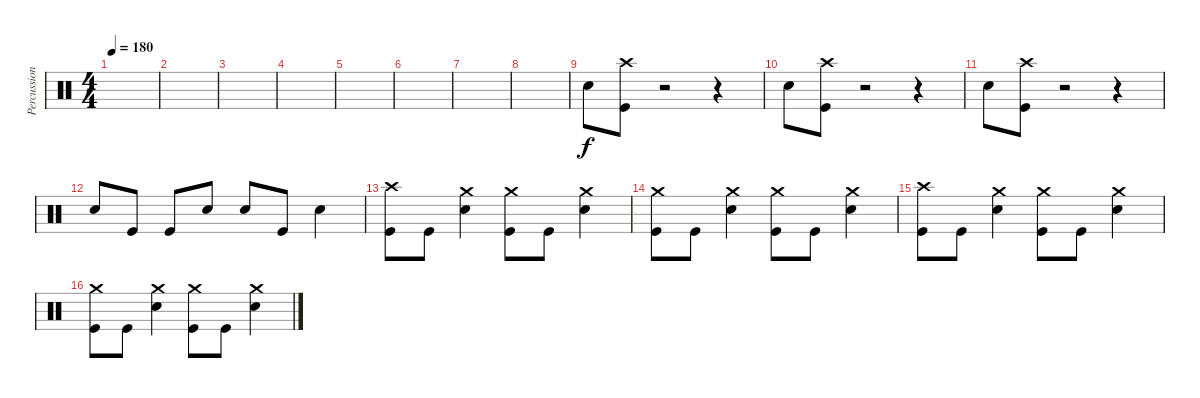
\track ("Percussion" "Percussion") {instrument percussion}
\staff {score}
\articulation defaults
\ts (4 4)
\tempo 180
\clef neutral
\ks c
|
|
|
|
|
|
|
|
"Snare (hit) 2".8 ("Crash high (hit)" "Kick (hit)").8 r.2 r.4 |
"Snare (hit) 2".8 ("Crash high (hit)" "Kick (hit)").8 r.2 r.4 |
"Snare (hit) 2".8 ("Crash high (hit)" "Kick (hit)").8 r.2 r.4 |
"Snare (hit) 2".8 "Kick (hit)".8 "Kick (hit)".8 "Snare (hit) 2".8 "Snare (hit) 2".8 "Kick (hit)".8 "Snare (hit) 2".4 |
("Crash high (hit)" "Kick (hit)").8 "Kick (hit)".8 ("Crash medium (hit)" "Snare (hit) 2").4 ("Crash medium (hit)" "Kick (hit)").8 "Kick (hit)".8 ("Crash medium (hit)" "Snare (hit) 2").4 |
("Crash medium (hit)" "Kick (hit)").8 "Kick (hit)".8 ("Crash medium (hit)" "Snare (hit) 2").4 ("Crash medium (hit)" "Kick (hit)").8 "Kick (hit)".8 ("Crash medium (hit)" "Snare (hit) 2").4 |
("Crash high (hit)" "Kick (hit)").8 "Kick (hit)".8 ("Crash medium (hit)" "Snare (hit) 2").4 ("Crash medium (hit)" "Kick (hit)").8 "Kick (hit)".8 ("Crash medium (hit)" "Snare (hit) 2").4 |
("Crash medium (hit)" "Kick (hit)").8 "Kick (hit)".8 ("Crash medium (hit)" "Snare (hit) 2").4 ("Crash medium (hit)" "Kick (hit)").8 "Kick (hit)".8 ("Crash medium (hit)" "Snare (hit) 2").4
